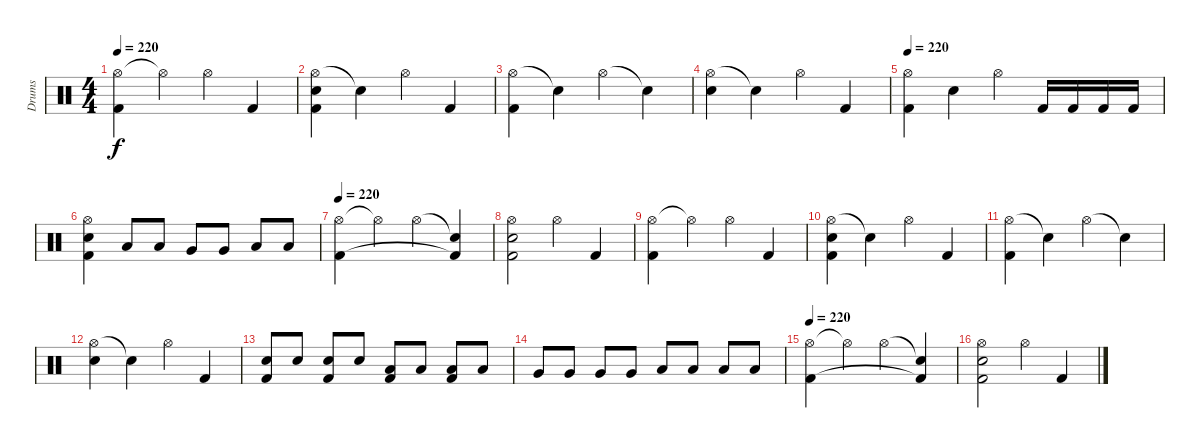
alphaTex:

\track ("Drums" "Drums") {instrument percussion}
\staff {score}
\articulation defaults
\ts (4 4)
\tempo 220
\clef neutral
\ks c
("Hi-Hat (open)" "Kick (hit) 2").4{dy f} "Hi-Hat (open)"{t}.4 "Hi-Hat (open)".4 "Kick (hit) 2".4 |
("Hi-Hat (open)" "Snare (hit) 2" "Kick (hit) 2").4 "Snare (hit)"{t}.4 "Hi-Hat (open)".4 "Kick (hit) 2".4 |
("Hi-Hat (open)" "Kick (hit) 2").4 "Snare (hit)"{t}.4 "Hi-Hat (open)".4 "Snare (hit)"{t}.4 |
("Hi-Hat (open)" "Snare (hit) 2").4 "Snare (hit)"{t}.4 "Hi-Hat (open)".4 "Kick (hit) 2".4 |
\tempo 220
("Hi-Hat (open)" "Kick (hit) 2").4 "Snare (hit) 2".4 "Hi-Hat (open)".4 "Kick (hit) 2".16 "Kick (hit) 2".16 "Kick (hit) 2".16 "Kick (hit) 2".16 |
("Hi-Hat (open)" "Snare (hit) 2" "Kick (hit) 2").4 "Low Tom (hit)".8 "Low Tom (hit)".8 "Very Low Tom (hit)".8 "Very Low Tom (hit)".8 "Low Floor Tom (hit)".8 "Low Floor Tom (hit)".8 |
\tempo 220
("Hi-Hat (open)" "Kick (hit) 2").4 "Hi-Hat (open)"{t}.4 "Hi-Hat (open)".4 ("Snare (hit)"{t} "Kick (hit) 2"{t}).4 |
("Hi-Hat (open)" "Snare (hit) 2" "Kick (hit) 2").2 "Hi-Hat (open)".4 "Kick (hit) 2".4 |
("Hi-Hat (open)" "Kick (hit) 2").4 "Hi-Hat (open)"{t}.4 "Hi-Hat (open)".4 "Kick (hit) 2".4 |
("Hi-Hat (open)" "Snare (hit) 2" "Kick (hit) 2").4 "Snare (hit)"{t}.4 "Hi-Hat (open)".4 "Kick (hit) 2".4 |
("Hi-Hat (open)" "Kick (hit) 2").4 "Snare (hit)"{t}.4 "Hi-Hat (open)".4 "Snare (hit)"{t}.4 |
("Hi-Hat (open)" "Snare (hit) 2").4 "Snare (hit)"{t}.4 "Hi-Hat (open)".4 "Kick (hit) 2".4 |
("Snare (hit) 2" "Kick (hit) 2").8 "Snare (hit) 2".8 ("Snare (hit) 2" "Kick (hit) 2").8 "Snare (hit) 2".8 ("Low Tom (hit)" "Kick (hit) 2").8 "Low Tom (hit)".8 ("Low Tom (hit)" "Kick (hit) 2").8 "Low Tom (hit)".8 |
"Very Low Tom (hit)".8 "Very Low Tom (hit)".8 "Very Low Tom (hit)".8 "Very Low Tom (hit)".8 "Low Floor Tom (hit)".8 "Low Floor Tom (hit)".8 "Low Floor Tom (hit)".8 "Low Floor Tom (hit)".8 |
\tempo 220
("Hi-Hat (open)" "Kick (hit) 2").4 "Hi-Hat (open)"{t}.4 "Hi-Hat (open)".4 ("Snare (hit)"{t} "Kick (hit) 2"{t}).4 |
("Hi-Hat (open)" "Snare (hit) 2" "Kick (hit) 2").2 "Hi-Hat (open)".4 "Kick (hit) 2".4
